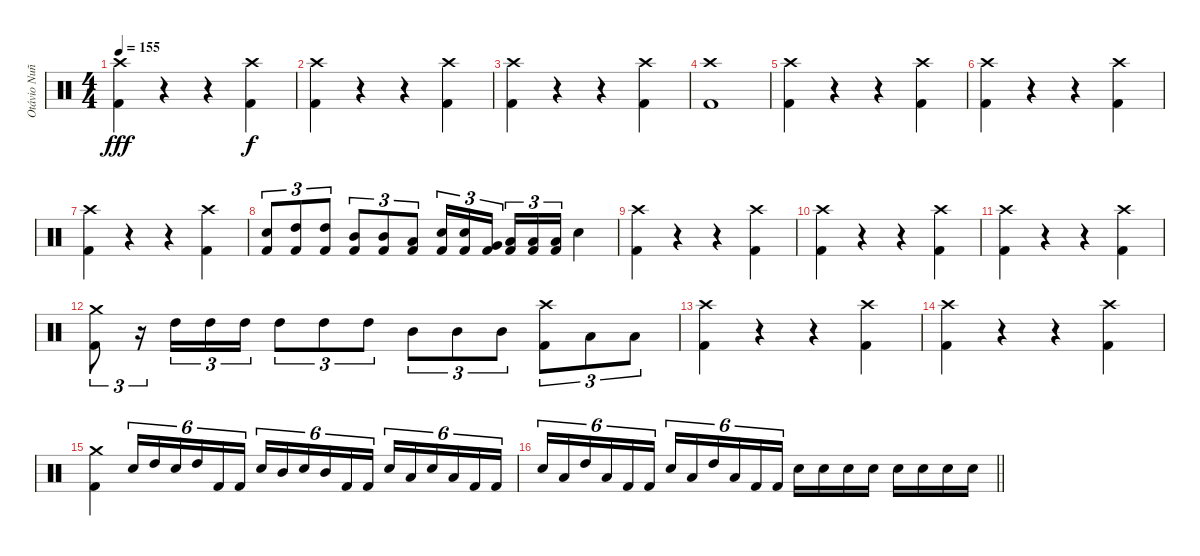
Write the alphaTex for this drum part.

\track ("Otávio Nuñez" "Otávio Nuñ") {instrument percussion}
\staff {score}
\articulation defaults
\ts (4 4)
\tempo 155
\clef neutral
\ks c
("Crash high (hit)" "Kick (hit) 2").4{dy fff} r.4 r.4 ("Crash high (hit)" "Kick (hit) 2").4{dy f} |
("Crash high (hit)" "Kick (hit) 2").4 r.4 r.4 ("Crash high (hit)" "Kick (hit) 2").4 |
("Crash high (hit)" "Kick (hit) 2").4 r.4 r.4 ("Crash high (hit)" "Kick (hit) 2").4 |
("Crash high (hit)" "Kick (hit) 2").1 |
("Crash high (hit)" "Kick (hit) 2").4 r.4 r.4 ("Crash high (hit)" "Kick (hit) 2").4 |
("Crash high (hit)" "Kick (hit) 2").4 r.4 r.4 ("Crash high (hit)" "Kick (hit) 2").4 |
("Crash high (hit)" "Kick (hit) 2").4 r.4 r.4 ("Crash high (hit)" "Kick (hit) 2").4 |
("Electric Snare (hit)" "Kick (hit) 2").8{tu (3 2)} ("High Tom (hit)" "Kick (hit) 2").8{tu (3 2)} ("High Tom (hit)" "Kick (hit) 2").8{tu (3 2)} ("Mid Tom (hit)" "Kick (hit) 2").8{tu (3 2)} ("Mid Tom (hit)" "Kick (hit) 2").8{tu (3 2)} ("Low Tom (hit)" "Kick (hit) 2").8{tu (3 2)} ("Snare (hit) 2" "Kick (hit) 2").16{tu (3 2)} ("Snare (hit) 2" "Kick (hit) 2").16{tu (3 2)} ("Very Low Tom (hit)" "Kick (hit) 2").16{tu (3 2)} ("Low Tom (hit)" "Kick (hit) 2").16{tu (3 2)} ("Low Floor Tom (hit)" "Kick (hit) 2").16{tu (3 2)} ("Low Floor Tom (hit)" "Kick (hit) 2").16{tu (3 2)} "Electric Snare (hit)".4 |
("Crash high (hit)" "Kick (hit) 2").4 r.4 r.4 ("Crash high (hit)" "Kick (hit) 2").4 |
("Crash high (hit)" "Kick (hit) 2").4 r.4 r.4 ("Crash high (hit)" "Kick (hit) 2").4 |
("Crash high (hit)" "Kick (hit) 2").4 r.4 r.4 ("Crash high (hit)" "Kick (hit) 2").4 |
("Crash medium (hit)" "Kick (hit) 2").8{tu (3 2)} r.16{tu (3 2)} "High Tom (hit)".16{tu (3 2)} "High Tom (hit)".16{tu (3 2)} "High Tom (hit)".16{tu (3 2)} "High Tom (hit)".8{tu (3 2)} "High Tom (hit)".8{tu (3 2)} "High Tom (hit)".8{tu (3 2)} "Mid Tom (hit)".8{tu (3 2)} "Mid Tom (hit)".8{tu (3 2)} "Mid Tom (hit)".8{tu (3 2)} ("Crash high (hit)" "Kick (hit) 2").8{tu (3 2)} "Low Tom (hit)".8{tu (3 2)} "Low Tom (hit)".8{tu (3 2)} |
("Crash high (hit)" "Kick (hit) 2").4 r.4 r.4 ("Crash high (hit)" "Kick (hit) 2").4 |
("Crash high (hit)" "Kick (hit) 2").4 r.4 r.4 ("Crash high (hit)" "Kick (hit) 2").4 |
("Crash medium (hit)" "Kick (hit) 2").4 "Snare (hit) 2".16{tu (6 4)} "High Tom (hit)".16{tu (6 4)} "Snare (hit) 2".16{tu (6 4)} "High Tom (hit)".16{tu (6 4)} "Kick (hit) 2".16{tu (6 4)} "Kick (hit) 2".16{tu (6 4)} "Snare (hit) 2".16{tu (6 4)} "Mid Tom (hit)".16{tu (6 4)} "Snare (hit) 2".16{tu (6 4)} "Mid Tom (hit)".16{tu (6 4)} "Kick (hit) 2".16{tu (6 4)} "Kick (hit) 2".16{tu (6 4)} "Snare (hit) 2".16{tu (6 4)} "Low Tom (hit)".16{tu (6 4)} "Snare (hit) 2".16{tu (6 4)} "Low Tom (hit)".16{tu (6 4)} "Kick (hit) 2".16{tu (6 4)} "Kick (hit) 2".16{tu (6 4)} |
\barLineRight lightlight "Snare (hit) 2".16{tu (6 4)} "Low Tom (hit)".16{tu (6 4)} "High Tom (hit)".16{tu (6 4)} "Low Tom (hit)".16{tu (6 4)} "Kick (hit) 2".16{tu (6 4)} "Kick (hit) 2".16{tu (6 4)} "Snare (hit) 2".16{tu (6 4)} "Low Tom (hit)".16{tu (6 4)} "High Tom (hit)".16{tu (6 4)} "Low Tom (hit)".16{tu (6 4)} "Kick (hit) 2".16{tu (6 4)} "Kick (hit) 2".16{tu (6 4)} "Snare (hit) 2".16 "Snare (hit) 2".16 "Snare (hit) 2".16 "Snare (hit) 2".16 "Snare (hit) 2".16 "Snare (hit) 2".16 "Snare (hit) 2".16 "Snare (hit) 2".16
